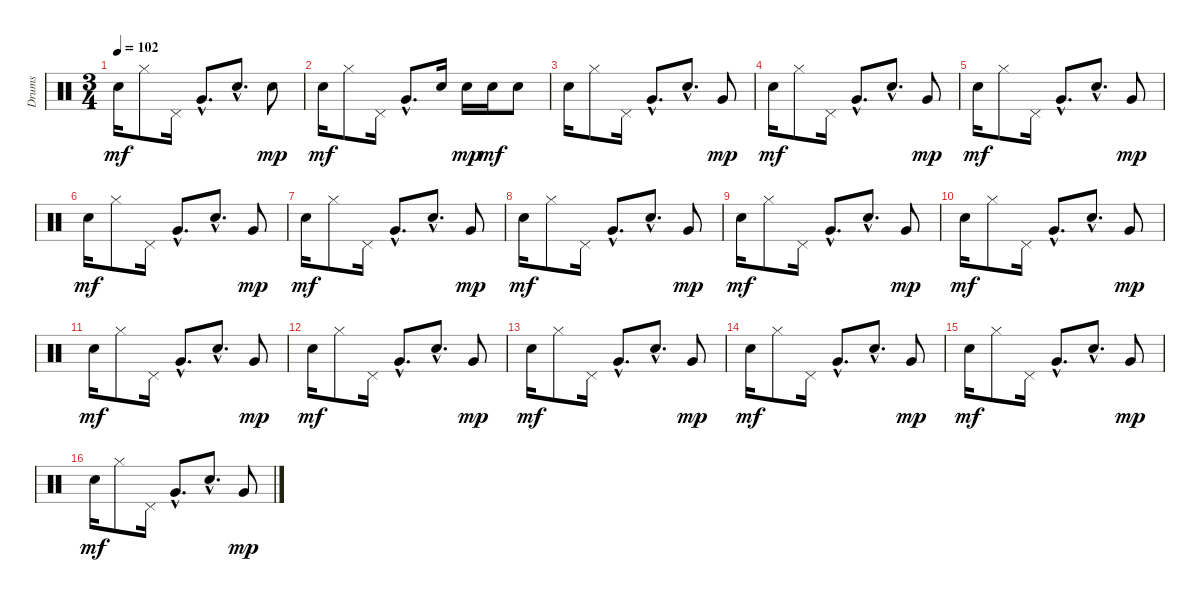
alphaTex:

\track ("Drums" "Drums") {instrument percussion}
\staff {score}
\articulation defaults
\ts (3 4)
\tempo 102
\clef neutral
\ks c "Electric Snare (hit)".16{dy mf} "Hi-Hat (closed)".8 "Pedal Hi-Hat (hit)".16 "Very Low Tom (hit)"{hac}.8{d} "Electric Snare (hit)"{hac}.8{d} "Electric Snare (hit)".8{dy mp}
|
"Electric Snare (hit)".16{dy mf volume 13} "Hi-Hat (closed)".8 "Pedal Hi-Hat (hit)".16 "Very Low Tom (hit)"{hac}.8{d} "Electric Snare (hit)".16 "Electric Snare (hit)".16{dy mp} "Electric Snare (hit)".16{dy mf} "Electric Snare (hit)".8 |
"Electric Snare (hit)".16{volume 16} "Hi-Hat (closed)".8 "Pedal Hi-Hat (hit)".16 "Very Low Tom (hit)"{hac}.8{d} "Electric Snare (hit)"{hac}.8{d} "Very Low Tom (hit)".8{dy mp} |
"Electric Snare (hit)".16{dy mf volume 16} "Hi-Hat (closed)".8 "Pedal Hi-Hat (hit)".16 "Very Low Tom (hit)"{hac}.8{d} "Electric Snare (hit)"{hac}.8{d} "Very Low Tom (hit)".8{dy mp} |
"Electric Snare (hit)".16{dy mf volume 16} "Hi-Hat (closed)".8 "Pedal Hi-Hat (hit)".16 "Very Low Tom (hit)"{hac}.8{d} "Electric Snare (hit)"{hac}.8{d} "Very Low Tom (hit)".8{dy mp} |
"Electric Snare (hit)".16{dy mf volume 16} "Hi-Hat (closed)".8 "Pedal Hi-Hat (hit)".16 "Very Low Tom (hit)"{hac}.8{d} "Electric Snare (hit)"{hac}.8{d} "Very Low Tom (hit)".8{dy mp} |
"Electric Snare (hit)".16{dy mf volume 16} "Hi-Hat (closed)".8 "Pedal Hi-Hat (hit)".16 "Very Low Tom (hit)"{hac}.8{d} "Electric Snare (hit)"{hac}.8{d} "Very Low Tom (hit)".8{dy mp} |
"Electric Snare (hit)".16{dy mf volume 16} "Hi-Hat (closed)".8 "Pedal Hi-Hat (hit)".16 "Very Low Tom (hit)"{hac}.8{d} "Electric Snare (hit)"{hac}.8{d} "Very Low Tom (hit)".8{dy mp} |
"Electric Snare (hit)".16{dy mf volume 16} "Hi-Hat (closed)".8 "Pedal Hi-Hat (hit)".16 "Very Low Tom (hit)"{hac}.8{d} "Electric Snare (hit)"{hac}.8{d} "Very Low Tom (hit)".8{dy mp} |
"Electric Snare (hit)".16{dy mf volume 16} "Hi-Hat (closed)".8 "Pedal Hi-Hat (hit)".16 "Very Low Tom (hit)"{hac}.8{d} "Electric Snare (hit)"{hac}.8{d} "Very Low Tom (hit)".8{dy mp} |
"Electric Snare (hit)".16{dy mf volume 16} "Hi-Hat (closed)".8 "Pedal Hi-Hat (hit)".16 "Very Low Tom (hit)"{hac}.8{d} "Electric Snare (hit)"{hac}.8{d} "Very Low Tom (hit)".8{dy mp} |
"Electric Snare (hit)".16{dy mf volume 16} "Hi-Hat (closed)".8 "Pedal Hi-Hat (hit)".16 "Very Low Tom (hit)"{hac}.8{d} "Electric Snare (hit)"{hac}.8{d} "Very Low Tom (hit)".8{dy mp} |
"Electric Snare (hit)".16{dy mf volume 16} "Hi-Hat (closed)".8 "Pedal Hi-Hat (hit)".16 "Very Low Tom (hit)"{hac}.8{d} "Electric Snare (hit)"{hac}.8{d} "Very Low Tom (hit)".8{dy mp} |
"Electric Snare (hit)".16{dy mf volume 16} "Hi-Hat (closed)".8 "Pedal Hi-Hat (hit)".16 "Very Low Tom (hit)"{hac}.8{d} "Electric Snare (hit)"{hac}.8{d} "Very Low Tom (hit)".8{dy mp} |
"Electric Snare (hit)".16{dy mf volume 16} "Hi-Hat (closed)".8 "Pedal Hi-Hat (hit)".16 "Very Low Tom (hit)"{hac}.8{d} "Electric Snare (hit)"{hac}.8{d} "Very Low Tom (hit)".8{dy mp} |
"Electric Snare (hit)".16{dy mf volume 16} "Hi-Hat (closed)".8 "Pedal Hi-Hat (hit)".16 "Very Low Tom (hit)"{hac}.8{d} "Electric Snare (hit)"{hac}.8{d} "Very Low Tom (hit)".8{dy mp}
